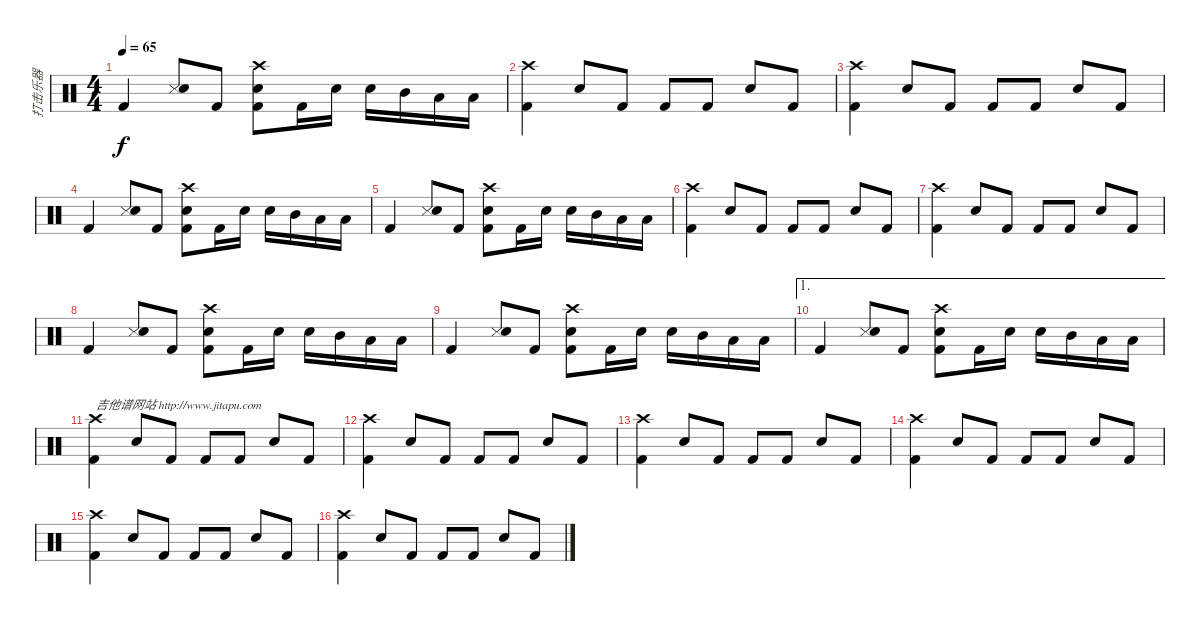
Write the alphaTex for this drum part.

\track ("打击乐器" "打击乐器") {instrument percussion}
\staff {score}
\articulation defaults
\ts (4 4)
\tempo 65
\clef neutral
\ks c "Kick (hit) 2".4{dy f}
("Snare (side stick) 3" "Snare (hit) 2").8 "Kick (hit) 2".8 ("Crash high (hit)" "Kick (hit) 2" "Snare (hit) 2").8 "Kick (hit) 2".16 "Snare (hit) 2".16 "Snare (hit) 2".16 "Mid Tom (hit)".16 "Low Tom (hit)".16 "Low Floor Tom (hit)".16 |
("Crash high (hit)" "Kick (hit) 2").4 "Snare (hit) 2".8 "Kick (hit) 2".8 "Kick (hit) 2".8 "Kick (hit) 2".8 "Snare (hit) 2".8 "Kick (hit) 2".8 |
("Crash high (hit)" "Kick (hit) 2").4 "Snare (hit) 2".8 "Kick (hit) 2".8 "Kick (hit) 2".8 "Kick (hit) 2".8 "Snare (hit) 2".8 "Kick (hit) 2".8 |
"Kick (hit) 2".4 ("Snare (side stick) 3" "Snare (hit) 2").8 "Kick (hit) 2".8 ("Crash high (hit)" "Kick (hit) 2" "Snare (hit) 2").8 "Kick (hit) 2".16 "Snare (hit) 2".16 "Snare (hit) 2".16 "Mid Tom (hit)".16 "Low Tom (hit)".16 "Low Floor Tom (hit)".16 |
"Kick (hit) 2".4 ("Snare (side stick) 3" "Snare (hit) 2").8 "Kick (hit) 2".8 ("Crash high (hit)" "Kick (hit) 2" "Snare (hit) 2").8 "Kick (hit) 2".16 "Snare (hit) 2".16 "Snare (hit) 2".16 "Mid Tom (hit)".16 "Low Tom (hit)".16 "Low Floor Tom (hit)".16 |
("Crash high (hit)" "Kick (hit) 2").4 "Snare (hit) 2".8 "Kick (hit) 2".8 "Kick (hit) 2".8 "Kick (hit) 2".8 "Snare (hit) 2".8 "Kick (hit) 2".8 |
("Crash high (hit)" "Kick (hit) 2").4 "Snare (hit) 2".8 "Kick (hit) 2".8 "Kick (hit) 2".8 "Kick (hit) 2".8 "Snare (hit) 2".8 "Kick (hit) 2".8 |
"Kick (hit) 2".4 ("Snare (side stick) 3" "Snare (hit) 2").8 "Kick (hit) 2".8 ("Crash high (hit)" "Kick (hit) 2" "Snare (hit) 2").8 "Kick (hit) 2".16 "Snare (hit) 2".16 "Snare (hit) 2".16 "Mid Tom (hit)".16 "Low Tom (hit)".16 "Low Floor Tom (hit)".16 |
"Kick (hit) 2".4 ("Snare (side stick) 3" "Snare (hit) 2").8 "Kick (hit) 2".8 ("Crash high (hit)" "Kick (hit) 2" "Snare (hit) 2").8 "Kick (hit) 2".16 "Snare (hit) 2".16 "Snare (hit) 2".16 "Mid Tom (hit)".16 "Low Tom (hit)".16 "Low Floor Tom (hit)".16 |
\ae 1 "Kick (hit) 2".4
("Snare (side stick) 3" "Snare (hit) 2").8 "Kick (hit) 2".8 ("Crash high (hit)" "Kick (hit) 2" "Snare (hit) 2").8 "Kick (hit) 2".16 "Snare (hit) 2".16 "Snare (hit) 2".16 "Mid Tom (hit)".16 "Low Tom (hit)".16 "Low Floor Tom (hit)".16 |
("Crash high (hit)" "Kick (hit) 2").4{txt "吉他谱网站 http://www.jitapu.com"} "Snare (hit) 2".8 "Kick (hit) 2".8 "Kick (hit) 2".8 "Kick (hit) 2".8 "Snare (hit) 2".8 "Kick (hit) 2".8 |
("Crash high (hit)" "Kick (hit) 2").4 "Snare (hit) 2".8 "Kick (hit) 2".8 "Kick (hit) 2".8 "Kick (hit) 2".8 "Snare (hit) 2".8 "Kick (hit) 2".8 |
("Crash high (hit)" "Kick (hit) 2").4 "Snare (hit) 2".8 "Kick (hit) 2".8 "Kick (hit) 2".8 "Kick (hit) 2".8 "Snare (hit) 2".8 "Kick (hit) 2".8 |
("Crash high (hit)" "Kick (hit) 2").4 "Snare (hit) 2".8 "Kick (hit) 2".8 "Kick (hit) 2".8 "Kick (hit) 2".8 "Snare (hit) 2".8 "Kick (hit) 2".8 |
("Crash high (hit)" "Kick (hit) 2").4 "Snare (hit) 2".8 "Kick (hit) 2".8 "Kick (hit) 2".8 "Kick (hit) 2".8 "Snare (hit) 2".8 "Kick (hit) 2".8 |
("Crash high (hit)" "Kick (hit) 2").4 "Snare (hit) 2".8 "Kick (hit) 2".8 "Kick (hit) 2".8 "Kick (hit) 2".8 "Snare (hit) 2".8 "Kick (hit) 2".8
